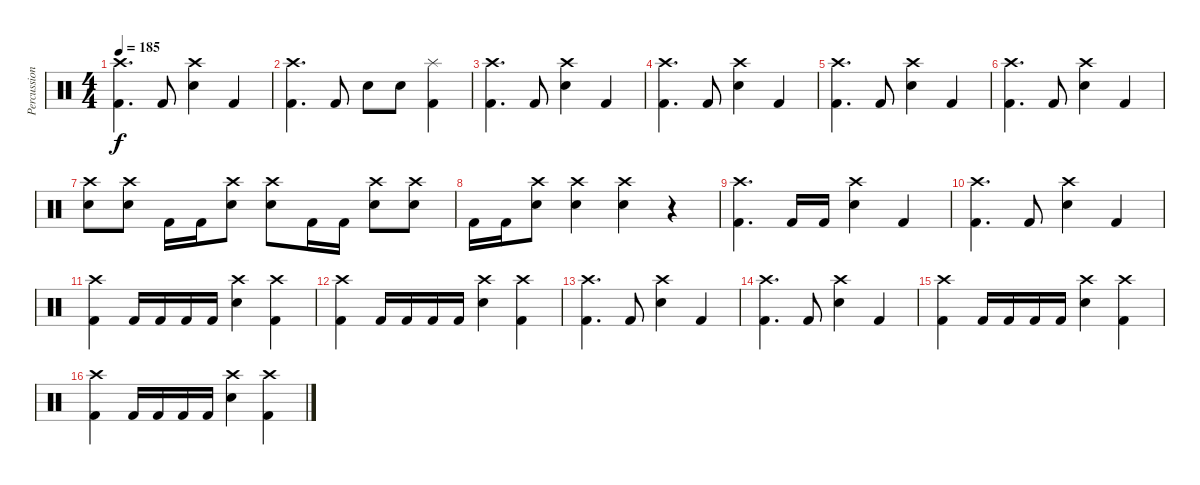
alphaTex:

\track ("Percussion" "Percussion") {instrument percussion}
\staff {score}
\articulation defaults
\ts (4 4)
\tempo 185
\clef neutral
\ks c
("Crash high (hit)" "Kick (hit) 2").4{d dy f} "Kick (hit) 2".8 ("Crash high (hit)" "Snare (hit) 2").4 "Kick (hit) 2".4 |
("Crash high (hit)" "Kick (hit) 2").4{d} "Kick (hit) 2".8 "Snare (hit) 2".8 "Snare (hit) 2".8 ("Splash (hit)" "Kick (hit) 2").4 |
("Crash high (hit)" "Kick (hit) 2").4{d} "Kick (hit) 2".8 ("Crash high (hit)" "Snare (hit) 2").4 "Kick (hit) 2".4 |
("Crash high (hit)" "Kick (hit) 2").4{d} "Kick (hit) 2".8 ("Crash high (hit)" "Snare (hit) 2").4 "Kick (hit) 2".4 |
("Crash high (hit)" "Kick (hit) 2").4{d} "Kick (hit) 2".8 ("Crash high (hit)" "Snare (hit) 2").4 "Kick (hit) 2".4 |
("Crash high (hit)" "Kick (hit) 2").4{d} "Kick (hit) 2".8 ("Crash high (hit)" "Snare (hit) 2").4 "Kick (hit) 2".4 |
("Crash high (hit)" "Snare (hit) 2").8 ("Crash high (hit)" "Snare (hit) 2").8 "Kick (hit) 2".16 "Kick (hit) 2".16 ("Crash high (hit)" "Snare (hit) 2").8 ("Crash high (hit)" "Snare (hit) 2").8 "Kick (hit) 2".16 "Kick (hit) 2".16 ("Crash high (hit)" "Snare (hit) 2").8 ("Crash high (hit)" "Snare (hit) 2").8 |
"Kick (hit) 2".16 "Kick (hit) 2".16 ("Crash high (hit)" "Snare (hit) 2").8 ("Crash high (hit)" "Snare (hit) 2").4 ("Crash high (hit)" "Snare (hit) 2").4 r.4 |
("Crash high (hit)" "Kick (hit) 2").4{d} "Kick (hit) 2".16 "Kick (hit) 2".16 ("Crash high (hit)" "Snare (hit) 2").4 "Kick (hit) 2".4 |
("Crash high (hit)" "Kick (hit) 2").4{d} "Kick (hit) 2".8 ("Crash high (hit)" "Snare (hit) 2").4 "Kick (hit) 2".4 |
("Crash high (hit)" "Kick (hit) 2").4 "Kick (hit) 2".16 "Kick (hit) 2".16 "Kick (hit) 2".16 "Kick (hit) 2".16 ("Crash high (hit)" "Snare (hit) 2").4 ("Crash high (hit)" "Kick (hit) 2").4 |
("Crash high (hit)" "Kick (hit) 2").4 "Kick (hit) 2".16 "Kick (hit) 2".16 "Kick (hit) 2".16 "Kick (hit) 2".16 ("Crash high (hit)" "Snare (hit) 2").4 ("Crash high (hit)" "Kick (hit) 2").4 |
("Crash high (hit)" "Kick (hit) 2").4{d} "Kick (hit) 2".8 ("Crash high (hit)" "Snare (hit) 2").4 "Kick (hit) 2".4 |
("Crash high (hit)" "Kick (hit) 2").4{d} "Kick (hit) 2".8 ("Crash high (hit)" "Snare (hit) 2").4 "Kick (hit) 2".4 |
("Crash high (hit)" "Kick (hit) 2").4 "Kick (hit) 2".16 "Kick (hit) 2".16 "Kick (hit) 2".16 "Kick (hit) 2".16 ("Crash high (hit)" "Snare (hit) 2").4 ("Crash high (hit)" "Kick (hit) 2").4 |
("Crash high (hit)" "Kick (hit) 2").4 "Kick (hit) 2".16 "Kick (hit) 2".16 "Kick (hit) 2".16 "Kick (hit) 2".16 ("Crash high (hit)" "Snare (hit) 2").4 ("Crash high (hit)" "Kick (hit) 2").4
